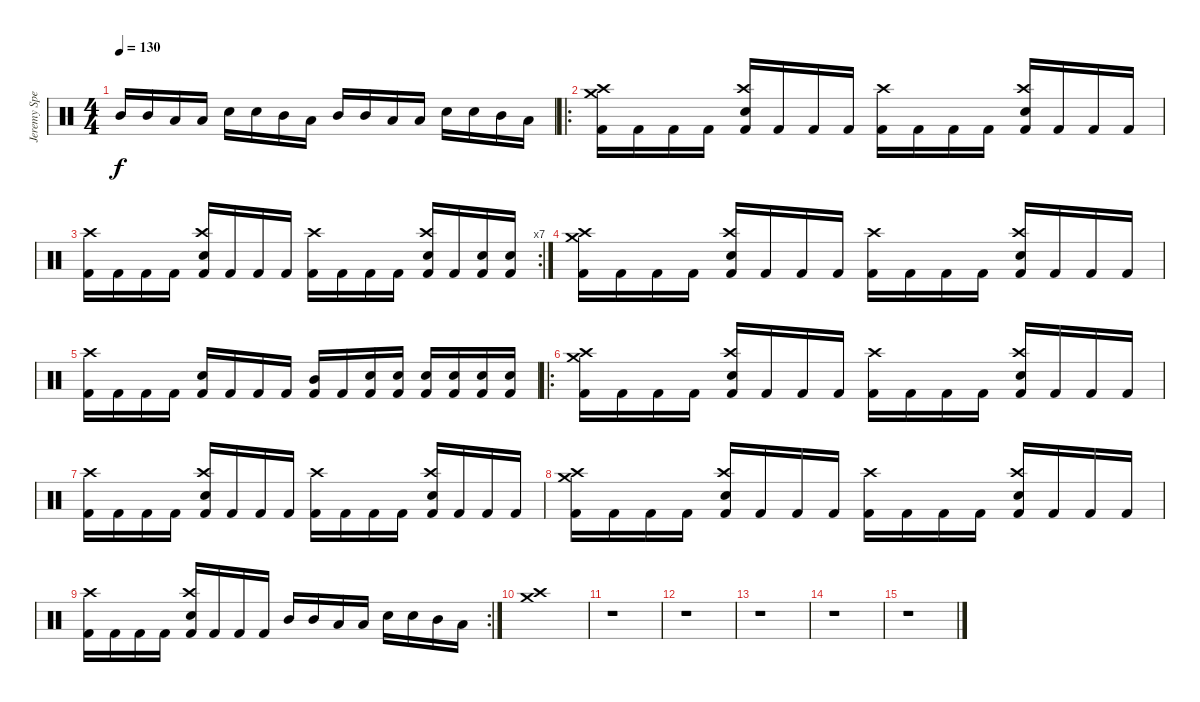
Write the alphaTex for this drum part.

\track ("Jeremy Spencer" "Jeremy Spe") {instrument percussion}
\staff {score}
\articulation defaults
\ts (4 4)
\tempo 130
\clef neutral
\ks c "Mid Tom (hit)".16{dy f} "Mid Tom (hit)".16 "Low Tom (hit)".16 "Low Tom (hit)".16 "Snare (hit) 2".16 "Snare (hit) 2".16 "Mid Tom (hit)".16 "Low Tom (hit)".16 "Mid Tom (hit)".16 "Mid Tom (hit)".16 "Low Tom (hit)".16 "Low Tom (hit)".16 "Snare (hit) 2".16 "Snare (hit) 2".16 "Mid Tom (hit)".16 "Low Tom (hit)".16
|
\ro
("Crash high (hit)" "Crash medium (hit)" "Kick (hit) 2").16 "Kick (hit) 2".16 "Kick (hit) 2".16 "Kick (hit) 2".16 ("Crash high (hit)" "Snare (hit) 2" "Kick (hit) 2").16 "Kick (hit) 2".16 "Kick (hit) 2".16 "Kick (hit) 2".16 ("Crash high (hit)" "Kick (hit) 2").16 "Kick (hit) 2".16 "Kick (hit) 2".16 "Kick (hit) 2".16 ("Crash high (hit)" "Snare (hit) 2" "Kick (hit) 2").16 "Kick (hit) 2".16 "Kick (hit) 2".16 "Kick (hit) 2".16 |
\rc 7
("Crash high (hit)" "Kick (hit) 2").16 "Kick (hit) 2".16 "Kick (hit) 2".16 "Kick (hit) 2".16 ("Crash high (hit)" "Snare (hit) 2" "Kick (hit) 2").16 "Kick (hit) 2".16 "Kick (hit) 2".16 "Kick (hit) 2".16 ("Crash high (hit)" "Kick (hit) 2").16 "Kick (hit) 2".16 "Kick (hit) 2".16 "Kick (hit) 2".16 ("Crash high (hit)" "Snare (hit) 2" "Kick (hit) 2").16 "Kick (hit) 2".16 ("Snare (hit) 2" "Kick (hit) 2").16 ("Snare (hit) 2" "Kick (hit) 2").16 |
("Crash high (hit)" "Crash medium (hit)" "Kick (hit) 2").16 "Kick (hit) 2".16 "Kick (hit) 2".16 "Kick (hit) 2".16 ("Crash high (hit)" "Snare (hit) 2" "Kick (hit) 2").16 "Kick (hit) 2".16 "Kick (hit) 2".16 "Kick (hit) 2".16 ("Crash high (hit)" "Kick (hit) 2").16 "Kick (hit) 2".16 "Kick (hit) 2".16 "Kick (hit) 2".16 ("Crash high (hit)" "Snare (hit) 2" "Kick (hit) 2").16 "Kick (hit) 2".16 "Kick (hit) 2".16 "Kick (hit) 2".16 |
("Crash high (hit)" "Kick (hit) 2").16 "Kick (hit) 2".16 "Kick (hit) 2".16 "Kick (hit) 2".16 ("Snare (hit) 2" "Kick (hit) 2").16 "Kick (hit) 2".16 "Kick (hit) 2".16 "Kick (hit) 2".16 ("Mid Tom (hit)" "Kick (hit) 2").16 "Kick (hit) 2".16 ("Snare (hit) 2" "Kick (hit) 2").16 ("Snare (hit) 2" "Kick (hit) 2").16 ("Snare (hit) 2" "Kick (hit) 2").16 ("Snare (hit) 2" "Kick (hit) 2").16 ("Snare (hit) 2" "Kick (hit) 2").16 ("Snare (hit) 2" "Kick (hit) 2").16 |
\ro
("Crash high (hit)" "Crash medium (hit)" "Kick (hit) 2").16 "Kick (hit) 2".16 "Kick (hit) 2".16 "Kick (hit) 2".16 ("Crash high (hit)" "Snare (hit) 2" "Kick (hit) 2").16 "Kick (hit) 2".16 "Kick (hit) 2".16 "Kick (hit) 2".16 ("Crash high (hit)" "Kick (hit) 2").16 "Kick (hit) 2".16 "Kick (hit) 2".16 "Kick (hit) 2".16 ("Crash high (hit)" "Snare (hit) 2" "Kick (hit) 2").16 "Kick (hit) 2".16 "Kick (hit) 2".16 "Kick (hit) 2".16 |
("Crash high (hit)" "Kick (hit) 2").16 "Kick (hit) 2".16 "Kick (hit) 2".16 "Kick (hit) 2".16 ("Crash high (hit)" "Snare (hit) 2" "Kick (hit) 2").16 "Kick (hit) 2".16 "Kick (hit) 2".16 "Kick (hit) 2".16 ("Crash high (hit)" "Kick (hit) 2").16 "Kick (hit) 2".16 "Kick (hit) 2".16 "Kick (hit) 2".16 ("Crash high (hit)" "Snare (hit) 2" "Kick (hit) 2").16 "Kick (hit) 2".16 "Kick (hit) 2".16 "Kick (hit) 2".16 |
("Crash high (hit)" "Crash medium (hit)" "Kick (hit) 2").16 "Kick (hit) 2".16 "Kick (hit) 2".16 "Kick (hit) 2".16 ("Crash high (hit)" "Snare (hit) 2" "Kick (hit) 2").16 "Kick (hit) 2".16 "Kick (hit) 2".16 "Kick (hit) 2".16 ("Crash high (hit)" "Kick (hit) 2").16 "Kick (hit) 2".16 "Kick (hit) 2".16 "Kick (hit) 2".16 ("Crash high (hit)" "Snare (hit) 2" "Kick (hit) 2").16 "Kick (hit) 2".16 "Kick (hit) 2".16 "Kick (hit) 2".16 |
\rc 2
("Crash high (hit)" "Kick (hit) 2").16 "Kick (hit) 2".16 "Kick (hit) 2".16 "Kick (hit) 2".16 ("Crash high (hit)" "Snare (hit) 2" "Kick (hit) 2").16 "Kick (hit) 2".16 "Kick (hit) 2".16 "Kick (hit) 2".16 "Mid Tom (hit)".16 "Mid Tom (hit)".16 "Low Tom (hit)".16 "Low Tom (hit)".16 "Snare (hit) 2".16 "Snare (hit) 2".16 "Mid Tom (hit)".16 "Low Tom (hit)".16 |
("Crash medium (hit)" "Crash high (hit)").1 |
r.1 |
r.1 |
r.1 |
r.1 |
r.1
